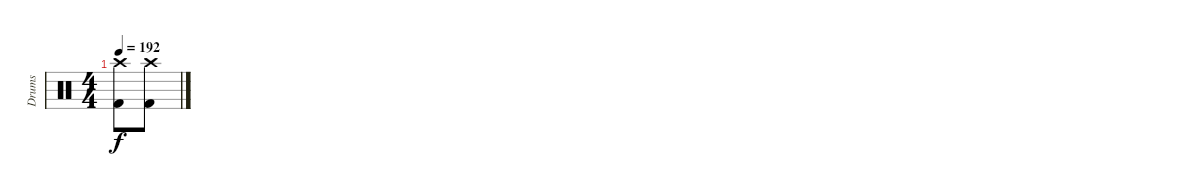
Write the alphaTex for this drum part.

\track ("Drums" "Drums") {instrument percussion}
\staff {score}
\articulation defaults
\ts (4 4)
\tempo 192
\clef neutral
\ks c
("Crash high (hit)" "Kick (hit) 2").8{dy f} ("Crash high (hit)" "Kick (hit) 2").8
